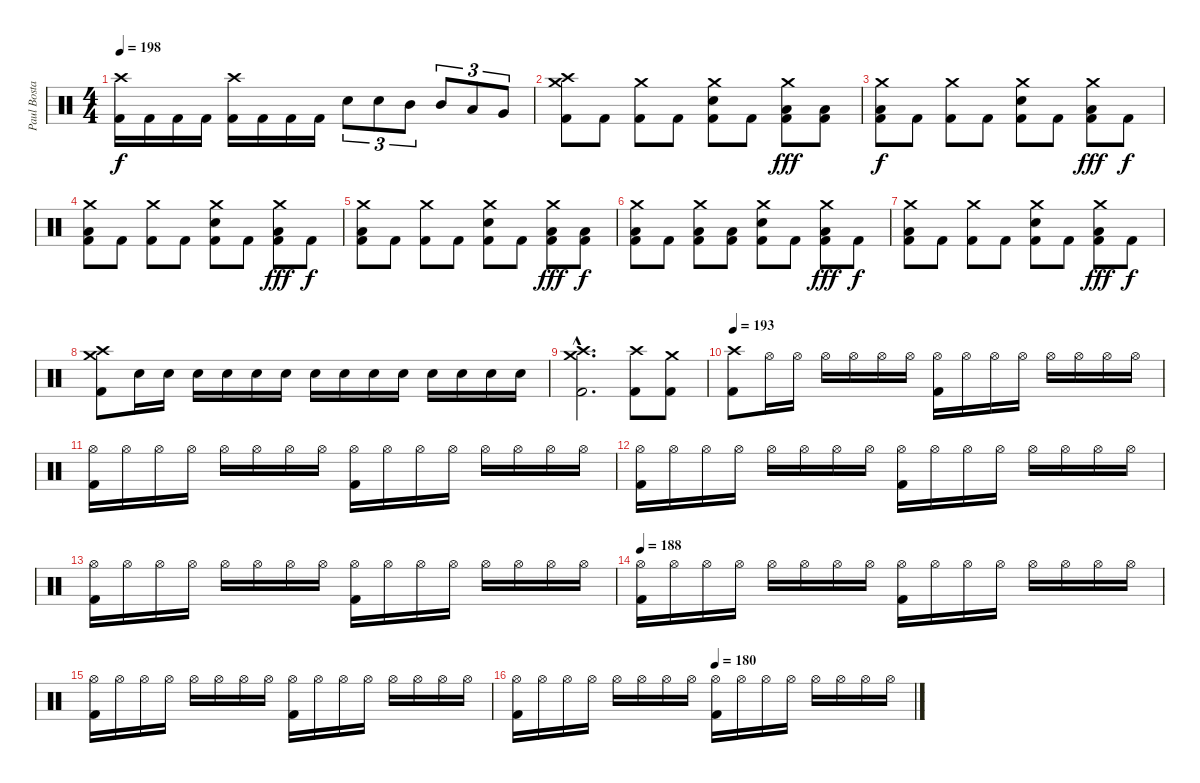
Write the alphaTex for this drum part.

\track ("Paul Bostaph" "Paul Bosta") {instrument percussion}
\staff {score}
\articulation defaults
\ts (4 4)
\tempo 198
\clef neutral
\ks c
("Crash high (hit)" "Kick (hit) 2").16{dy f} "Kick (hit) 2".16 "Kick (hit) 2".16 "Kick (hit) 2".16 ("Crash high (hit)" "Kick (hit) 2").16 "Kick (hit) 2".16 "Kick (hit) 2".16 "Kick (hit) 2".16 "Electric Snare (hit)".8{tu (3 2)} "Electric Snare (hit)".8{tu (3 2)} "Mid Tom (hit)".8{tu (3 2)} "Mid Tom (hit)".8{tu (3 2)} "Low Tom (hit)".8{tu (3 2)} "Very Low Tom (hit)".8{tu (3 2)} |
("Crash medium (hit)" "Crash high (hit)" "Kick (hit) 2").8 "Kick (hit) 2".8 ("Crash medium (hit)" "Kick (hit) 2").8 "Kick (hit) 2".8 ("Crash medium (hit)" "Kick (hit) 2" "Electric Snare (hit)").8 "Kick (hit) 2".8 ("Crash medium (hit)" "Kick (hit) 2" "Low Tom (hit)").8{dy fff} ("Kick (hit) 2" "Low Tom (hit)").8 |
("Crash medium (hit)" "Kick (hit) 2" "Low Tom (hit)").8{dy f} "Kick (hit) 2".8 ("Crash medium (hit)" "Kick (hit) 2").8 "Kick (hit) 2".8 ("Crash medium (hit)" "Kick (hit) 2" "Electric Snare (hit)").8 "Kick (hit) 2".8 ("Crash medium (hit)" "Kick (hit) 2" "Low Tom (hit)").8{dy fff} "Kick (hit) 2".8{dy f} |
("Crash medium (hit)" "Kick (hit) 2" "Low Tom (hit)").8 "Kick (hit) 2".8 ("Crash medium (hit)" "Kick (hit) 2").8 "Kick (hit) 2".8 ("Crash medium (hit)" "Kick (hit) 2" "Electric Snare (hit)").8 "Kick (hit) 2".8 ("Crash medium (hit)" "Kick (hit) 2" "Low Tom (hit)").8{dy fff} "Kick (hit) 2".8{dy f} |
("Crash medium (hit)" "Kick (hit) 2" "Low Tom (hit)").8 "Kick (hit) 2".8 ("Crash medium (hit)" "Kick (hit) 2").8 "Kick (hit) 2".8 ("Crash medium (hit)" "Kick (hit) 2" "Electric Snare (hit)").8 "Kick (hit) 2".8 ("Crash medium (hit)" "Kick (hit) 2" "Low Tom (hit)").8{dy fff} ("Kick (hit) 2" "Low Tom (hit)").8{dy f} |
("Crash medium (hit)" "Kick (hit) 2" "Low Tom (hit)").8 "Kick (hit) 2".8 ("Crash medium (hit)" "Kick (hit) 2" "Low Tom (hit)").8 ("Kick (hit) 2" "Low Tom (hit)").8 ("Crash medium (hit)" "Kick (hit) 2" "Electric Snare (hit)").8 "Kick (hit) 2".8 ("Crash medium (hit)" "Kick (hit) 2" "Low Tom (hit)").8{dy fff} "Kick (hit) 2".8{dy f} |
("Crash medium (hit)" "Kick (hit) 2" "Low Tom (hit)").8 "Kick (hit) 2".8 ("Crash medium (hit)" "Kick (hit) 2").8 "Kick (hit) 2".8 ("Crash medium (hit)" "Kick (hit) 2" "Electric Snare (hit)").8 "Kick (hit) 2".8 ("Crash medium (hit)" "Kick (hit) 2" "Low Tom (hit)").8{dy fff} "Kick (hit) 2".8{dy f} |
("Crash medium (hit)" "Crash high (hit)" "Kick (hit) 2").8 "Electric Snare (hit)".16 "Electric Snare (hit)".16 "Electric Snare (hit)".16 "Electric Snare (hit)".16 "Electric Snare (hit)".16 "Electric Snare (hit)".16 "Electric Snare (hit)".16 "Electric Snare (hit)".16 "Electric Snare (hit)".16 "Electric Snare (hit)".16 "Electric Snare (hit)".16 "Electric Snare (hit)".16 "Electric Snare (hit)".16 "Electric Snare (hit)".16 |
("Crash high (hit)"{hac} "Crash medium (hit)"{hac} "Kick (hit) 2"{hac}).2{d} ("Crash high (hit)" "Kick (hit) 2").8 ("Crash medium (hit)" "Kick (hit) 2").8 |
\tempo 193
("Crash high (hit)" "Kick (hit) 2").8 "Hi-Hat (open)".16 "Hi-Hat (open)".16 "Hi-Hat (open)".16 "Hi-Hat (open)".16 "Hi-Hat (open)".16 "Hi-Hat (open)".16 ("Kick (hit) 2" "Hi-Hat (open)").16 "Hi-Hat (open)".16 "Hi-Hat (open)".16 "Hi-Hat (open)".16 "Hi-Hat (open)".16 "Hi-Hat (open)".16 "Hi-Hat (open)".16 "Hi-Hat (open)".16 |
("Kick (hit) 2" "Hi-Hat (open)").16 "Hi-Hat (open)".16 "Hi-Hat (open)".16 "Hi-Hat (open)".16 "Hi-Hat (open)".16 "Hi-Hat (open)".16 "Hi-Hat (open)".16 "Hi-Hat (open)".16 ("Kick (hit) 2" "Hi-Hat (open)").16 "Hi-Hat (open)".16 "Hi-Hat (open)".16 "Hi-Hat (open)".16 "Hi-Hat (open)".16 "Hi-Hat (open)".16 "Hi-Hat (open)".16 "Hi-Hat (open)".16 |
("Kick (hit) 2" "Hi-Hat (open)").16 "Hi-Hat (open)".16 "Hi-Hat (open)".16 "Hi-Hat (open)".16 "Hi-Hat (open)".16 "Hi-Hat (open)".16 "Hi-Hat (open)".16 "Hi-Hat (open)".16 ("Kick (hit) 2" "Hi-Hat (open)").16 "Hi-Hat (open)".16 "Hi-Hat (open)".16 "Hi-Hat (open)".16 "Hi-Hat (open)".16 "Hi-Hat (open)".16 "Hi-Hat (open)".16 "Hi-Hat (open)".16 |
("Kick (hit) 2" "Hi-Hat (open)").16 "Hi-Hat (open)".16 "Hi-Hat (open)".16 "Hi-Hat (open)".16 "Hi-Hat (open)".16 "Hi-Hat (open)".16 "Hi-Hat (open)".16 "Hi-Hat (open)".16 ("Kick (hit) 2" "Hi-Hat (open)").16 "Hi-Hat (open)".16 "Hi-Hat (open)".16 "Hi-Hat (open)".16 "Hi-Hat (open)".16 "Hi-Hat (open)".16 "Hi-Hat (open)".16 "Hi-Hat (open)".16 |
\tempo 188
("Kick (hit) 2" "Hi-Hat (open)").16 "Hi-Hat (open)".16 "Hi-Hat (open)".16 "Hi-Hat (open)".16 "Hi-Hat (open)".16 "Hi-Hat (open)".16 "Hi-Hat (open)".16 "Hi-Hat (open)".16 ("Kick (hit) 2" "Hi-Hat (open)").16 "Hi-Hat (open)".16 "Hi-Hat (open)".16 "Hi-Hat (open)".16 "Hi-Hat (open)".16 "Hi-Hat (open)".16 "Hi-Hat (open)".16 "Hi-Hat (open)".16 |
("Kick (hit) 2" "Hi-Hat (open)").16 "Hi-Hat (open)".16 "Hi-Hat (open)".16 "Hi-Hat (open)".16 "Hi-Hat (open)".16 "Hi-Hat (open)".16 "Hi-Hat (open)".16 "Hi-Hat (open)".16 ("Kick (hit) 2" "Hi-Hat (open)").16 "Hi-Hat (open)".16 "Hi-Hat (open)".16 "Hi-Hat (open)".16 "Hi-Hat (open)".16 "Hi-Hat (open)".16 "Hi-Hat (open)".16 "Hi-Hat (open)".16 |
\tempo (180 0.5)
("Kick (hit) 2" "Hi-Hat (open)").16 "Hi-Hat (open)".16 "Hi-Hat (open)".16 "Hi-Hat (open)".16 "Hi-Hat (open)".16 "Hi-Hat (open)".16 "Hi-Hat (open)".16 "Hi-Hat (open)".16 ("Kick (hit) 2" "Hi-Hat (open)").16 "Hi-Hat (open)".16 "Hi-Hat (open)".16 "Hi-Hat (open)".16 "Hi-Hat (open)".16 "Hi-Hat (open)".16 "Hi-Hat (open)".16 "Hi-Hat (open)".16
